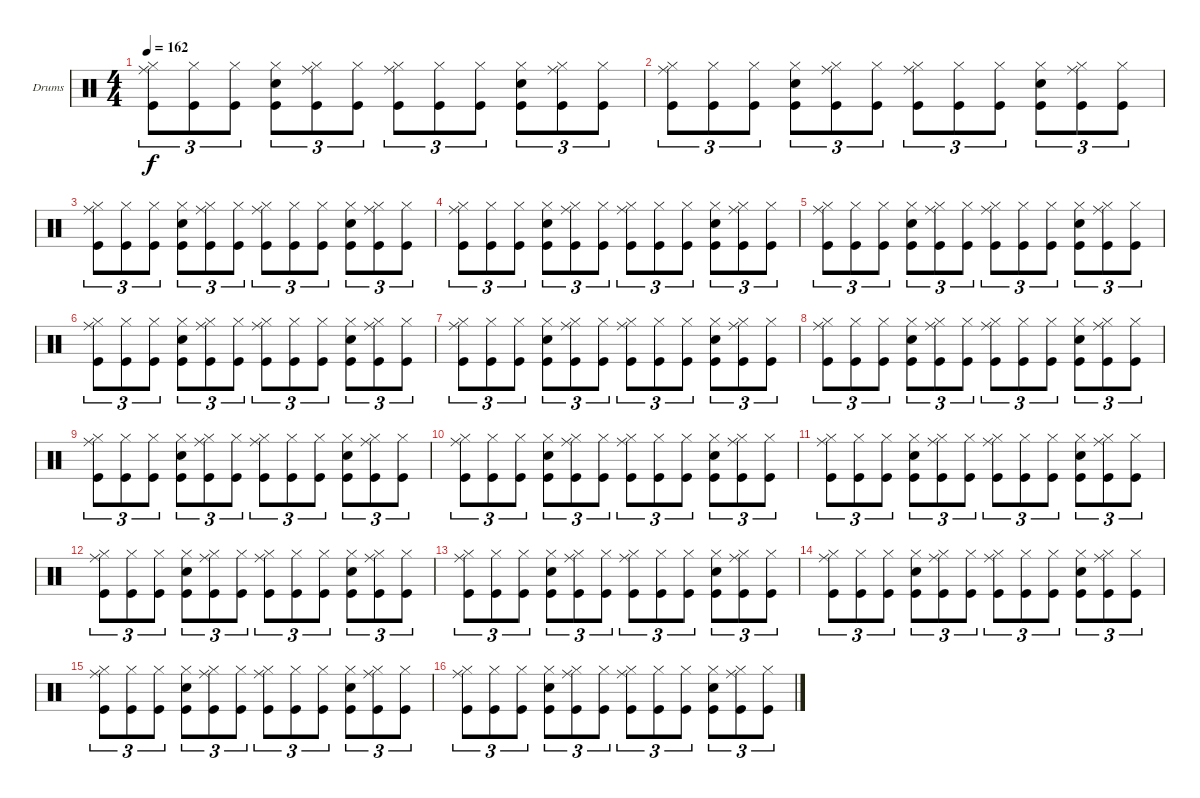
\bracketExtendMode groupsimilarinstruments
\firstSystemTrackNameOrientation horizontal
\otherSystemsTrackNameOrientation horizontal
\track ("Drumkit" "Drums") {instrument percussion}
\staff {score}
\articulation defaults
\ts (4 4)
\tempo 162
\clef neutral
\ks c
("Kick (hit)" "Ride (middle)" "Hi-Hat (closed)").8{tu (3 2) dy f} ("Kick (hit)" "Hi-Hat (closed)").8{tu (3 2)} ("Kick (hit)" "Hi-Hat (closed)").8{tu (3 2)} ("Kick (hit)" "Snare (hit) 2" "Hi-Hat (closed)").8{tu (3 2)} ("Kick (hit)" "Ride (middle)" "Hi-Hat (closed)").8{tu (3 2)} ("Kick (hit)" "Hi-Hat (closed)").8{tu (3 2)} ("Kick (hit)" "Ride (middle)" "Hi-Hat (closed)").8{tu (3 2)} ("Kick (hit)" "Hi-Hat (closed)").8{tu (3 2)} ("Kick (hit)" "Hi-Hat (closed)").8{tu (3 2)} ("Kick (hit)" "Snare (hit) 2" "Hi-Hat (closed)").8{tu (3 2)} ("Kick (hit)" "Ride (middle)" "Hi-Hat (closed)").8{tu (3 2)} ("Kick (hit)" "Hi-Hat (closed)").8{tu (3 2)} |
("Kick (hit)" "Ride (middle)" "Hi-Hat (closed)").8{tu (3 2)} ("Kick (hit)" "Hi-Hat (closed)").8{tu (3 2)} ("Kick (hit)" "Hi-Hat (closed)").8{tu (3 2)} ("Kick (hit)" "Snare (hit) 2" "Hi-Hat (closed)").8{tu (3 2)} ("Kick (hit)" "Ride (middle)" "Hi-Hat (closed)").8{tu (3 2)} ("Kick (hit)" "Hi-Hat (closed)").8{tu (3 2)} ("Kick (hit)" "Ride (middle)" "Hi-Hat (closed)").8{tu (3 2)} ("Kick (hit)" "Hi-Hat (closed)").8{tu (3 2)} ("Kick (hit)" "Hi-Hat (closed)").8{tu (3 2)} ("Kick (hit)" "Snare (hit) 2" "Hi-Hat (closed)").8{tu (3 2)} ("Kick (hit)" "Ride (middle)" "Hi-Hat (closed)").8{tu (3 2)} ("Kick (hit)" "Hi-Hat (closed)").8{tu (3 2)} |
("Kick (hit)" "Ride (middle)" "Hi-Hat (closed)").8{tu (3 2)} ("Kick (hit)" "Hi-Hat (closed)").8{tu (3 2)} ("Kick (hit)" "Hi-Hat (closed)").8{tu (3 2)} ("Kick (hit)" "Snare (hit) 2" "Hi-Hat (closed)").8{tu (3 2)} ("Kick (hit)" "Ride (middle)" "Hi-Hat (closed)").8{tu (3 2)} ("Kick (hit)" "Hi-Hat (closed)").8{tu (3 2)} ("Kick (hit)" "Ride (middle)" "Hi-Hat (closed)").8{tu (3 2)} ("Kick (hit)" "Hi-Hat (closed)").8{tu (3 2)} ("Kick (hit)" "Hi-Hat (closed)").8{tu (3 2)} ("Kick (hit)" "Snare (hit) 2" "Hi-Hat (closed)").8{tu (3 2)} ("Kick (hit)" "Ride (middle)" "Hi-Hat (closed)").8{tu (3 2)} ("Kick (hit)" "Hi-Hat (closed)").8{tu (3 2)} |
("Kick (hit)" "Ride (middle)" "Hi-Hat (closed)").8{tu (3 2)} ("Kick (hit)" "Hi-Hat (closed)").8{tu (3 2)} ("Kick (hit)" "Hi-Hat (closed)").8{tu (3 2)} ("Kick (hit)" "Snare (hit) 2" "Hi-Hat (closed)").8{tu (3 2)} ("Kick (hit)" "Ride (middle)" "Hi-Hat (closed)").8{tu (3 2)} ("Kick (hit)" "Hi-Hat (closed)").8{tu (3 2)} ("Kick (hit)" "Ride (middle)" "Hi-Hat (closed)").8{tu (3 2)} ("Kick (hit)" "Hi-Hat (closed)").8{tu (3 2)} ("Kick (hit)" "Hi-Hat (closed)").8{tu (3 2)} ("Kick (hit)" "Snare (hit) 2" "Hi-Hat (closed)").8{tu (3 2)} ("Kick (hit)" "Ride (middle)" "Hi-Hat (closed)").8{tu (3 2)} ("Kick (hit)" "Hi-Hat (closed)").8{tu (3 2)} |
("Kick (hit)" "Ride (middle)" "Hi-Hat (closed)").8{tu (3 2)} ("Kick (hit)" "Hi-Hat (closed)").8{tu (3 2)} ("Kick (hit)" "Hi-Hat (closed)").8{tu (3 2)} ("Kick (hit)" "Snare (hit) 2" "Hi-Hat (closed)").8{tu (3 2)} ("Kick (hit)" "Ride (middle)" "Hi-Hat (closed)").8{tu (3 2)} ("Kick (hit)" "Hi-Hat (closed)").8{tu (3 2)} ("Kick (hit)" "Ride (middle)" "Hi-Hat (closed)").8{tu (3 2)} ("Kick (hit)" "Hi-Hat (closed)").8{tu (3 2)} ("Kick (hit)" "Hi-Hat (closed)").8{tu (3 2)} ("Kick (hit)" "Snare (hit) 2" "Hi-Hat (closed)").8{tu (3 2)} ("Kick (hit)" "Ride (middle)" "Hi-Hat (closed)").8{tu (3 2)} ("Kick (hit)" "Hi-Hat (closed)").8{tu (3 2)} |
("Kick (hit)" "Ride (middle)" "Hi-Hat (closed)").8{tu (3 2)} ("Kick (hit)" "Hi-Hat (closed)").8{tu (3 2)} ("Kick (hit)" "Hi-Hat (closed)").8{tu (3 2)} ("Kick (hit)" "Snare (hit) 2" "Hi-Hat (closed)").8{tu (3 2)} ("Kick (hit)" "Ride (middle)" "Hi-Hat (closed)").8{tu (3 2)} ("Kick (hit)" "Hi-Hat (closed)").8{tu (3 2)} ("Kick (hit)" "Ride (middle)" "Hi-Hat (closed)").8{tu (3 2)} ("Kick (hit)" "Hi-Hat (closed)").8{tu (3 2)} ("Kick (hit)" "Hi-Hat (closed)").8{tu (3 2)} ("Kick (hit)" "Snare (hit) 2" "Hi-Hat (closed)").8{tu (3 2)} ("Kick (hit)" "Ride (middle)" "Hi-Hat (closed)").8{tu (3 2)} ("Kick (hit)" "Hi-Hat (closed)").8{tu (3 2)} |
("Kick (hit)" "Ride (middle)" "Hi-Hat (closed)").8{tu (3 2)} ("Kick (hit)" "Hi-Hat (closed)").8{tu (3 2)} ("Kick (hit)" "Hi-Hat (closed)").8{tu (3 2)} ("Kick (hit)" "Snare (hit) 2" "Hi-Hat (closed)").8{tu (3 2)} ("Kick (hit)" "Ride (middle)" "Hi-Hat (closed)").8{tu (3 2)} ("Kick (hit)" "Hi-Hat (closed)").8{tu (3 2)} ("Kick (hit)" "Ride (middle)" "Hi-Hat (closed)").8{tu (3 2)} ("Kick (hit)" "Hi-Hat (closed)").8{tu (3 2)} ("Kick (hit)" "Hi-Hat (closed)").8{tu (3 2)} ("Kick (hit)" "Snare (hit) 2" "Hi-Hat (closed)").8{tu (3 2)} ("Kick (hit)" "Ride (middle)" "Hi-Hat (closed)").8{tu (3 2)} ("Kick (hit)" "Hi-Hat (closed)").8{tu (3 2)} |
("Kick (hit)" "Ride (middle)" "Hi-Hat (closed)").8{tu (3 2)} ("Kick (hit)" "Hi-Hat (closed)").8{tu (3 2)} ("Kick (hit)" "Hi-Hat (closed)").8{tu (3 2)} ("Kick (hit)" "Snare (hit) 2" "Hi-Hat (closed)").8{tu (3 2)} ("Kick (hit)" "Ride (middle)" "Hi-Hat (closed)").8{tu (3 2)} ("Kick (hit)" "Hi-Hat (closed)").8{tu (3 2)} ("Kick (hit)" "Ride (middle)" "Hi-Hat (closed)").8{tu (3 2)} ("Kick (hit)" "Hi-Hat (closed)").8{tu (3 2)} ("Kick (hit)" "Hi-Hat (closed)").8{tu (3 2)} ("Kick (hit)" "Snare (hit) 2" "Hi-Hat (closed)").8{tu (3 2)} ("Kick (hit)" "Ride (middle)" "Hi-Hat (closed)").8{tu (3 2)} ("Kick (hit)" "Hi-Hat (closed)").8{tu (3 2)} |
("Kick (hit)" "Ride (middle)" "Hi-Hat (closed)").8{tu (3 2)} ("Kick (hit)" "Hi-Hat (closed)").8{tu (3 2)} ("Kick (hit)" "Hi-Hat (closed)").8{tu (3 2)} ("Kick (hit)" "Snare (hit) 2" "Hi-Hat (closed)").8{tu (3 2)} ("Kick (hit)" "Ride (middle)" "Hi-Hat (closed)").8{tu (3 2)} ("Kick (hit)" "Hi-Hat (closed)").8{tu (3 2)} ("Kick (hit)" "Ride (middle)" "Hi-Hat (closed)").8{tu (3 2)} ("Kick (hit)" "Hi-Hat (closed)").8{tu (3 2)} ("Kick (hit)" "Hi-Hat (closed)").8{tu (3 2)} ("Kick (hit)" "Snare (hit) 2" "Hi-Hat (closed)").8{tu (3 2)} ("Kick (hit)" "Ride (middle)" "Hi-Hat (closed)").8{tu (3 2)} ("Kick (hit)" "Hi-Hat (closed)").8{tu (3 2)} |
("Kick (hit)" "Ride (middle)" "Hi-Hat (closed)").8{tu (3 2)} ("Kick (hit)" "Hi-Hat (closed)").8{tu (3 2)} ("Kick (hit)" "Hi-Hat (closed)").8{tu (3 2)} ("Kick (hit)" "Snare (hit) 2" "Hi-Hat (closed)").8{tu (3 2)} ("Kick (hit)" "Ride (middle)" "Hi-Hat (closed)").8{tu (3 2)} ("Kick (hit)" "Hi-Hat (closed)").8{tu (3 2)} ("Kick (hit)" "Ride (middle)" "Hi-Hat (closed)").8{tu (3 2)} ("Kick (hit)" "Hi-Hat (closed)").8{tu (3 2)} ("Kick (hit)" "Hi-Hat (closed)").8{tu (3 2)} ("Kick (hit)" "Snare (hit) 2" "Hi-Hat (closed)").8{tu (3 2)} ("Kick (hit)" "Ride (middle)" "Hi-Hat (closed)").8{tu (3 2)} ("Kick (hit)" "Hi-Hat (closed)").8{tu (3 2)} |
("Kick (hit)" "Ride (middle)" "Hi-Hat (closed)").8{tu (3 2)} ("Kick (hit)" "Hi-Hat (closed)").8{tu (3 2)} ("Kick (hit)" "Hi-Hat (closed)").8{tu (3 2)} ("Kick (hit)" "Snare (hit) 2" "Hi-Hat (closed)").8{tu (3 2)} ("Kick (hit)" "Ride (middle)" "Hi-Hat (closed)").8{tu (3 2)} ("Kick (hit)" "Hi-Hat (closed)").8{tu (3 2)} ("Kick (hit)" "Ride (middle)" "Hi-Hat (closed)").8{tu (3 2)} ("Kick (hit)" "Hi-Hat (closed)").8{tu (3 2)} ("Kick (hit)" "Hi-Hat (closed)").8{tu (3 2)} ("Kick (hit)" "Snare (hit) 2" "Hi-Hat (closed)").8{tu (3 2)} ("Kick (hit)" "Ride (middle)" "Hi-Hat (closed)").8{tu (3 2)} ("Kick (hit)" "Hi-Hat (closed)").8{tu (3 2)} |
("Kick (hit)" "Ride (middle)" "Hi-Hat (closed)").8{tu (3 2)} ("Kick (hit)" "Hi-Hat (closed)").8{tu (3 2)} ("Kick (hit)" "Hi-Hat (closed)").8{tu (3 2)} ("Kick (hit)" "Snare (hit) 2" "Hi-Hat (closed)").8{tu (3 2)} ("Kick (hit)" "Ride (middle)" "Hi-Hat (closed)").8{tu (3 2)} ("Kick (hit)" "Hi-Hat (closed)").8{tu (3 2)} ("Kick (hit)" "Ride (middle)" "Hi-Hat (closed)").8{tu (3 2)} ("Kick (hit)" "Hi-Hat (closed)").8{tu (3 2)} ("Kick (hit)" "Hi-Hat (closed)").8{tu (3 2)} ("Kick (hit)" "Snare (hit) 2" "Hi-Hat (closed)").8{tu (3 2)} ("Kick (hit)" "Ride (middle)" "Hi-Hat (closed)").8{tu (3 2)} ("Kick (hit)" "Hi-Hat (closed)").8{tu (3 2)} |
("Kick (hit)" "Ride (middle)" "Hi-Hat (closed)").8{tu (3 2)} ("Kick (hit)" "Hi-Hat (closed)").8{tu (3 2)} ("Kick (hit)" "Hi-Hat (closed)").8{tu (3 2)} ("Kick (hit)" "Snare (hit) 2" "Hi-Hat (closed)").8{tu (3 2)} ("Kick (hit)" "Ride (middle)" "Hi-Hat (closed)").8{tu (3 2)} ("Kick (hit)" "Hi-Hat (closed)").8{tu (3 2)} ("Kick (hit)" "Ride (middle)" "Hi-Hat (closed)").8{tu (3 2)} ("Kick (hit)" "Hi-Hat (closed)").8{tu (3 2)} ("Kick (hit)" "Hi-Hat (closed)").8{tu (3 2)} ("Kick (hit)" "Snare (hit) 2" "Hi-Hat (closed)").8{tu (3 2)} ("Kick (hit)" "Ride (middle)" "Hi-Hat (closed)").8{tu (3 2)} ("Kick (hit)" "Hi-Hat (closed)").8{tu (3 2)} |
("Kick (hit)" "Ride (middle)" "Hi-Hat (closed)").8{tu (3 2)} ("Kick (hit)" "Hi-Hat (closed)").8{tu (3 2)} ("Kick (hit)" "Hi-Hat (closed)").8{tu (3 2)} ("Kick (hit)" "Snare (hit) 2" "Hi-Hat (closed)").8{tu (3 2)} ("Kick (hit)" "Ride (middle)" "Hi-Hat (closed)").8{tu (3 2)} ("Kick (hit)" "Hi-Hat (closed)").8{tu (3 2)} ("Kick (hit)" "Ride (middle)" "Hi-Hat (closed)").8{tu (3 2)} ("Kick (hit)" "Hi-Hat (closed)").8{tu (3 2)} ("Kick (hit)" "Hi-Hat (closed)").8{tu (3 2)} ("Kick (hit)" "Snare (hit) 2" "Hi-Hat (closed)").8{tu (3 2)} ("Kick (hit)" "Ride (middle)" "Hi-Hat (closed)").8{tu (3 2)} ("Kick (hit)" "Hi-Hat (closed)").8{tu (3 2)} |
("Kick (hit)" "Ride (middle)" "Hi-Hat (closed)").8{tu (3 2)} ("Kick (hit)" "Hi-Hat (closed)").8{tu (3 2)} ("Kick (hit)" "Hi-Hat (closed)").8{tu (3 2)} ("Kick (hit)" "Snare (hit) 2" "Hi-Hat (closed)").8{tu (3 2)} ("Kick (hit)" "Ride (middle)" "Hi-Hat (closed)").8{tu (3 2)} ("Kick (hit)" "Hi-Hat (closed)").8{tu (3 2)} ("Kick (hit)" "Ride (middle)" "Hi-Hat (closed)").8{tu (3 2)} ("Kick (hit)" "Hi-Hat (closed)").8{tu (3 2)} ("Kick (hit)" "Hi-Hat (closed)").8{tu (3 2)} ("Kick (hit)" "Snare (hit) 2" "Hi-Hat (closed)").8{tu (3 2)} ("Kick (hit)" "Ride (middle)" "Hi-Hat (closed)").8{tu (3 2)} ("Kick (hit)" "Hi-Hat (closed)").8{tu (3 2)} |
("Kick (hit)" "Ride (middle)" "Hi-Hat (closed)").8{tu (3 2)} ("Kick (hit)" "Hi-Hat (closed)").8{tu (3 2)} ("Kick (hit)" "Hi-Hat (closed)").8{tu (3 2)} ("Kick (hit)" "Snare (hit) 2" "Hi-Hat (closed)").8{tu (3 2)} ("Kick (hit)" "Ride (middle)" "Hi-Hat (closed)").8{tu (3 2)} ("Kick (hit)" "Hi-Hat (closed)").8{tu (3 2)} ("Kick (hit)" "Ride (middle)" "Hi-Hat (closed)").8{tu (3 2)} ("Kick (hit)" "Hi-Hat (closed)").8{tu (3 2)} ("Kick (hit)" "Hi-Hat (closed)").8{tu (3 2)} ("Kick (hit)" "Snare (hit) 2" "Hi-Hat (closed)").8{tu (3 2)} ("Kick (hit)" "Ride (middle)" "Hi-Hat (closed)").8{tu (3 2)} ("Kick (hit)" "Hi-Hat (closed)").8{tu (3 2)}
